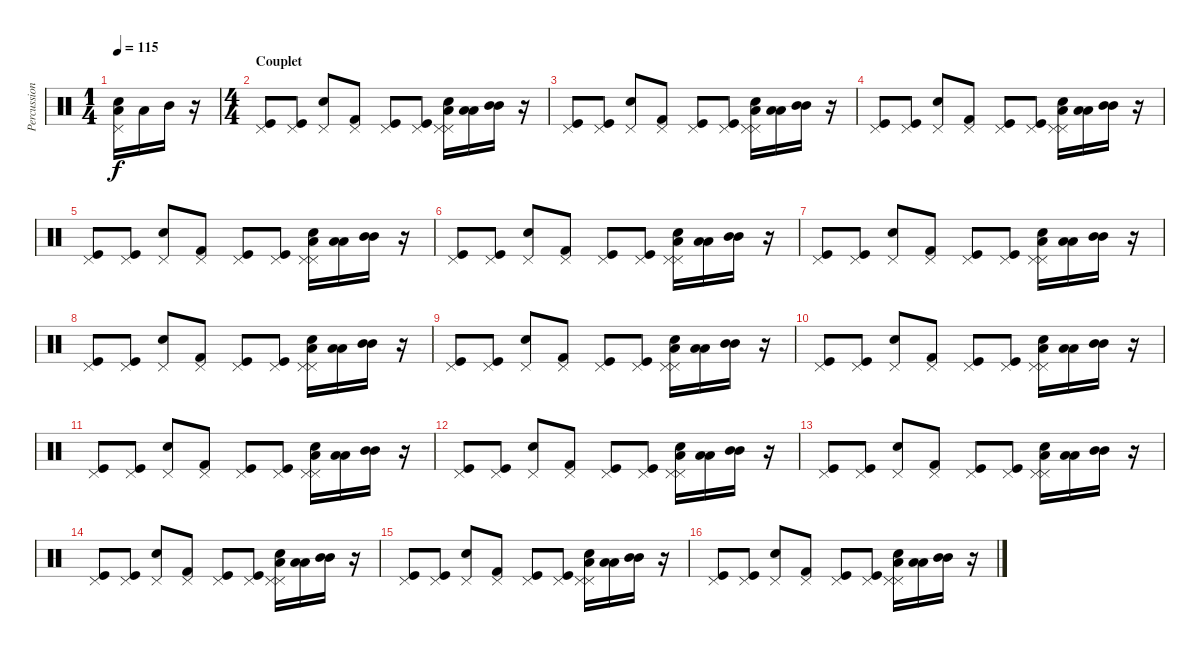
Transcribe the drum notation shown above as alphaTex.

\track ("Percussions" "Percussion") {instrument percussion}
\staff {score}
\articulation defaults
\ts (1 4)
\tempo 115
\clef neutral
\ks c
("Snare (hit) 2" "Pedal Hi-Hat (hit)" "Low Tom (hit)").16{dy f} "Low Tom (hit)".16 "Mid Tom (hit)".16 r.16 |
\ts (4 4)
\section ("" "Couplet")
("Kick (hit)" "Pedal Hi-Hat (hit)").8 ("Kick (hit)" "Pedal Hi-Hat (hit)").8 ("Snare (hit) 2" "Pedal Hi-Hat (hit)").8 ("Kick (hit) 2" "Pedal Hi-Hat (hit)").8 ("Kick (hit)" "Pedal Hi-Hat (hit)").8 ("Kick (hit)" "Pedal Hi-Hat (hit)").8 ("Snare (hit) 2" "Pedal Hi-Hat (hit)" "Low Tom (hit)" "Pedal Hi-Hat (hit)").16 ("Low Tom (hit)" "Low Tom (hit)").16 ("Mid Tom (hit)" "Mid Tom (hit)").16 r.16 |
("Kick (hit)" "Pedal Hi-Hat (hit)").8 ("Kick (hit)" "Pedal Hi-Hat (hit)").8 ("Snare (hit) 2" "Pedal Hi-Hat (hit)").8 ("Kick (hit) 2" "Pedal Hi-Hat (hit)").8 ("Kick (hit)" "Pedal Hi-Hat (hit)").8 ("Kick (hit)" "Pedal Hi-Hat (hit)").8 ("Snare (hit) 2" "Pedal Hi-Hat (hit)" "Low Tom (hit)" "Pedal Hi-Hat (hit)").16 ("Low Tom (hit)" "Low Tom (hit)").16 ("Mid Tom (hit)" "Mid Tom (hit)").16 r.16 |
("Kick (hit)" "Pedal Hi-Hat (hit)").8 ("Kick (hit)" "Pedal Hi-Hat (hit)").8 ("Snare (hit) 2" "Pedal Hi-Hat (hit)").8 ("Kick (hit) 2" "Pedal Hi-Hat (hit)").8 ("Kick (hit)" "Pedal Hi-Hat (hit)").8 ("Kick (hit)" "Pedal Hi-Hat (hit)").8 ("Snare (hit) 2" "Pedal Hi-Hat (hit)" "Low Tom (hit)" "Pedal Hi-Hat (hit)").16 ("Low Tom (hit)" "Low Tom (hit)").16 ("Mid Tom (hit)" "Mid Tom (hit)").16 r.16 |
("Kick (hit)" "Pedal Hi-Hat (hit)").8 ("Kick (hit)" "Pedal Hi-Hat (hit)").8 ("Snare (hit) 2" "Pedal Hi-Hat (hit)").8 ("Kick (hit) 2" "Pedal Hi-Hat (hit)").8 ("Kick (hit)" "Pedal Hi-Hat (hit)").8 ("Kick (hit)" "Pedal Hi-Hat (hit)").8 ("Snare (hit) 2" "Pedal Hi-Hat (hit)" "Low Tom (hit)" "Pedal Hi-Hat (hit)").16 ("Low Tom (hit)" "Low Tom (hit)").16 ("Mid Tom (hit)" "Mid Tom (hit)").16 r.16 |
("Kick (hit)" "Pedal Hi-Hat (hit)").8 ("Kick (hit)" "Pedal Hi-Hat (hit)").8 ("Snare (hit) 2" "Pedal Hi-Hat (hit)").8 ("Kick (hit) 2" "Pedal Hi-Hat (hit)").8 ("Kick (hit)" "Pedal Hi-Hat (hit)").8 ("Kick (hit)" "Pedal Hi-Hat (hit)").8 ("Snare (hit) 2" "Pedal Hi-Hat (hit)" "Low Tom (hit)" "Pedal Hi-Hat (hit)").16 ("Low Tom (hit)" "Low Tom (hit)").16 ("Mid Tom (hit)" "Mid Tom (hit)").16 r.16 |
("Kick (hit)" "Pedal Hi-Hat (hit)").8 ("Kick (hit)" "Pedal Hi-Hat (hit)").8 ("Snare (hit) 2" "Pedal Hi-Hat (hit)").8 ("Kick (hit) 2" "Pedal Hi-Hat (hit)").8 ("Kick (hit)" "Pedal Hi-Hat (hit)").8 ("Kick (hit)" "Pedal Hi-Hat (hit)").8 ("Snare (hit) 2" "Pedal Hi-Hat (hit)" "Low Tom (hit)" "Pedal Hi-Hat (hit)").16 ("Low Tom (hit)" "Low Tom (hit)").16 ("Mid Tom (hit)" "Mid Tom (hit)").16 r.16 |
("Kick (hit)" "Pedal Hi-Hat (hit)").8 ("Kick (hit)" "Pedal Hi-Hat (hit)").8 ("Snare (hit) 2" "Pedal Hi-Hat (hit)").8 ("Kick (hit) 2" "Pedal Hi-Hat (hit)").8 ("Kick (hit)" "Pedal Hi-Hat (hit)").8 ("Kick (hit)" "Pedal Hi-Hat (hit)").8 ("Snare (hit) 2" "Pedal Hi-Hat (hit)" "Low Tom (hit)" "Pedal Hi-Hat (hit)").16 ("Low Tom (hit)" "Low Tom (hit)").16 ("Mid Tom (hit)" "Mid Tom (hit)").16 r.16 |
("Kick (hit)" "Pedal Hi-Hat (hit)").8 ("Kick (hit)" "Pedal Hi-Hat (hit)").8 ("Snare (hit) 2" "Pedal Hi-Hat (hit)").8 ("Kick (hit) 2" "Pedal Hi-Hat (hit)").8 ("Kick (hit)" "Pedal Hi-Hat (hit)").8 ("Kick (hit)" "Pedal Hi-Hat (hit)").8 ("Snare (hit) 2" "Pedal Hi-Hat (hit)" "Low Tom (hit)" "Pedal Hi-Hat (hit)").16 ("Low Tom (hit)" "Low Tom (hit)").16 ("Mid Tom (hit)" "Mid Tom (hit)").16 r.16 |
("Kick (hit)" "Pedal Hi-Hat (hit)").8 ("Kick (hit)" "Pedal Hi-Hat (hit)").8 ("Snare (hit) 2" "Pedal Hi-Hat (hit)").8 ("Kick (hit) 2" "Pedal Hi-Hat (hit)").8 ("Kick (hit)" "Pedal Hi-Hat (hit)").8 ("Kick (hit)" "Pedal Hi-Hat (hit)").8 ("Snare (hit) 2" "Pedal Hi-Hat (hit)" "Low Tom (hit)" "Pedal Hi-Hat (hit)").16 ("Low Tom (hit)" "Low Tom (hit)").16 ("Mid Tom (hit)" "Mid Tom (hit)").16 r.16 |
("Kick (hit)" "Pedal Hi-Hat (hit)").8 ("Kick (hit)" "Pedal Hi-Hat (hit)").8 ("Snare (hit) 2" "Pedal Hi-Hat (hit)").8 ("Kick (hit) 2" "Pedal Hi-Hat (hit)").8 ("Kick (hit)" "Pedal Hi-Hat (hit)").8 ("Kick (hit)" "Pedal Hi-Hat (hit)").8 ("Snare (hit) 2" "Pedal Hi-Hat (hit)" "Low Tom (hit)" "Pedal Hi-Hat (hit)").16 ("Low Tom (hit)" "Low Tom (hit)").16 ("Mid Tom (hit)" "Mid Tom (hit)").16 r.16 |
("Kick (hit)" "Pedal Hi-Hat (hit)").8 ("Kick (hit)" "Pedal Hi-Hat (hit)").8 ("Snare (hit) 2" "Pedal Hi-Hat (hit)").8 ("Kick (hit) 2" "Pedal Hi-Hat (hit)").8 ("Kick (hit)" "Pedal Hi-Hat (hit)").8 ("Kick (hit)" "Pedal Hi-Hat (hit)").8 ("Snare (hit) 2" "Pedal Hi-Hat (hit)" "Low Tom (hit)" "Pedal Hi-Hat (hit)").16 ("Low Tom (hit)" "Low Tom (hit)").16 ("Mid Tom (hit)" "Mid Tom (hit)").16 r.16 |
("Kick (hit)" "Pedal Hi-Hat (hit)").8 ("Kick (hit)" "Pedal Hi-Hat (hit)").8 ("Snare (hit) 2" "Pedal Hi-Hat (hit)").8 ("Kick (hit) 2" "Pedal Hi-Hat (hit)").8 ("Kick (hit)" "Pedal Hi-Hat (hit)").8 ("Kick (hit)" "Pedal Hi-Hat (hit)").8 ("Snare (hit) 2" "Pedal Hi-Hat (hit)" "Low Tom (hit)" "Pedal Hi-Hat (hit)").16 ("Low Tom (hit)" "Low Tom (hit)").16 ("Mid Tom (hit)" "Mid Tom (hit)").16 r.16 |
("Kick (hit)" "Pedal Hi-Hat (hit)").8 ("Kick (hit)" "Pedal Hi-Hat (hit)").8 ("Snare (hit) 2" "Pedal Hi-Hat (hit)").8 ("Kick (hit) 2" "Pedal Hi-Hat (hit)").8 ("Kick (hit)" "Pedal Hi-Hat (hit)").8 ("Kick (hit)" "Pedal Hi-Hat (hit)").8 ("Snare (hit) 2" "Pedal Hi-Hat (hit)" "Low Tom (hit)" "Pedal Hi-Hat (hit)").16 ("Low Tom (hit)" "Low Tom (hit)").16 ("Mid Tom (hit)" "Mid Tom (hit)").16 r.16 |
("Kick (hit)" "Pedal Hi-Hat (hit)").8 ("Kick (hit)" "Pedal Hi-Hat (hit)").8 ("Snare (hit) 2" "Pedal Hi-Hat (hit)").8 ("Kick (hit) 2" "Pedal Hi-Hat (hit)").8 ("Kick (hit)" "Pedal Hi-Hat (hit)").8 ("Kick (hit)" "Pedal Hi-Hat (hit)").8 ("Snare (hit) 2" "Pedal Hi-Hat (hit)" "Low Tom (hit)" "Pedal Hi-Hat (hit)").16 ("Low Tom (hit)" "Low Tom (hit)").16 ("Mid Tom (hit)" "Mid Tom (hit)").16 r.16 |
("Kick (hit)" "Pedal Hi-Hat (hit)").8 ("Kick (hit)" "Pedal Hi-Hat (hit)").8 ("Snare (hit) 2" "Pedal Hi-Hat (hit)").8 ("Kick (hit) 2" "Pedal Hi-Hat (hit)").8 ("Kick (hit)" "Pedal Hi-Hat (hit)").8 ("Kick (hit)" "Pedal Hi-Hat (hit)").8 ("Snare (hit) 2" "Pedal Hi-Hat (hit)" "Low Tom (hit)" "Pedal Hi-Hat (hit)").16 ("Low Tom (hit)" "Low Tom (hit)").16 ("Mid Tom (hit)" "Mid Tom (hit)").16 r.16
